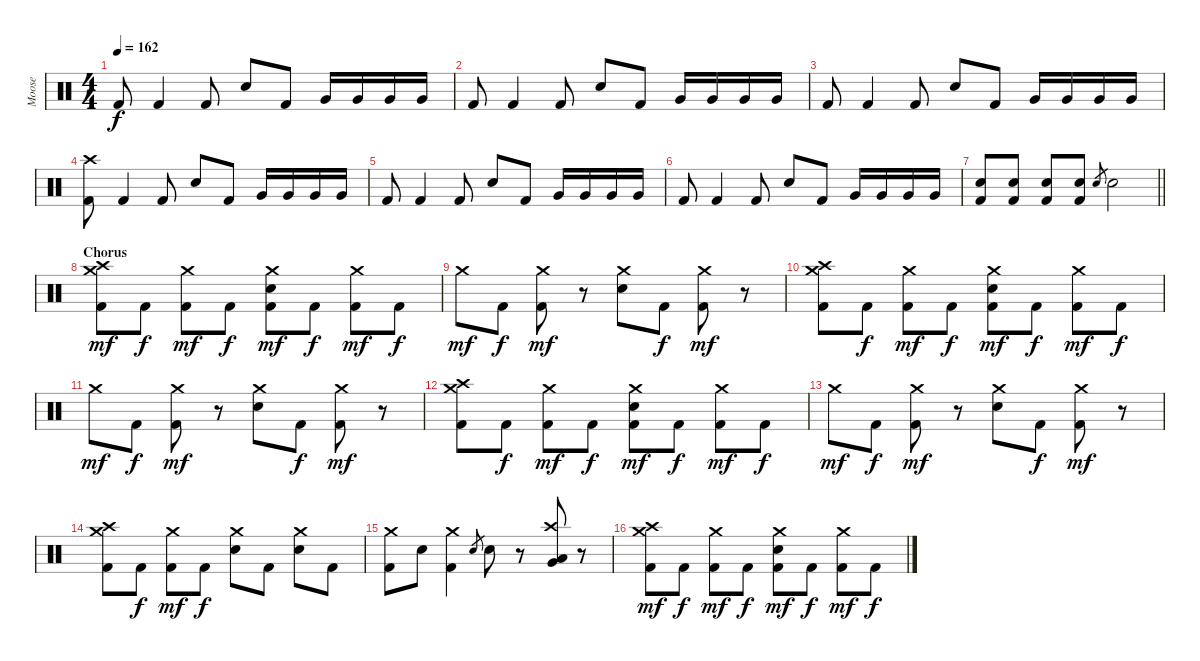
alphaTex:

\track ("Moose" "Moose") {instrument percussion}
\staff {score}
\articulation defaults
\ts (4 4)
\tempo 162
\clef neutral
\ks c "Kick (hit) 2".8{dy f} "Kick (hit) 2".4 "Kick (hit) 2".8 "Snare (hit) 2".8 "Kick (hit) 2".8 "Very Low Tom (hit)".16 "Very Low Tom (hit)".16 "Very Low Tom (hit)".16 "Very Low Tom (hit)".16
|
"Kick (hit) 2".8 "Kick (hit) 2".4 "Kick (hit) 2".8 "Snare (hit) 2".8 "Kick (hit) 2".8 "Very Low Tom (hit)".16 "Very Low Tom (hit)".16 "Very Low Tom (hit)".16 "Very Low Tom (hit)".16 |
"Kick (hit) 2".8 "Kick (hit) 2".4 "Kick (hit) 2".8 "Snare (hit) 2".8 "Kick (hit) 2".8 "Very Low Tom (hit)".16 "Very Low Tom (hit)".16 "Very Low Tom (hit)".16 "Very Low Tom (hit)".16 |
("Crash high (hit)" "Kick (hit) 2").8 "Kick (hit) 2".4 "Kick (hit) 2".8 "Snare (hit) 2".8 "Kick (hit) 2".8 "Very Low Tom (hit)".16 "Very Low Tom (hit)".16 "Very Low Tom (hit)".16 "Very Low Tom (hit)".16 |
"Kick (hit) 2".8 "Kick (hit) 2".4 "Kick (hit) 2".8 "Snare (hit) 2".8 "Kick (hit) 2".8 "Very Low Tom (hit)".16 "Very Low Tom (hit)".16 "Very Low Tom (hit)".16 "Very Low Tom (hit)".16 |
"Kick (hit) 2".8 "Kick (hit) 2".4 "Kick (hit) 2".8 "Snare (hit) 2".8 "Kick (hit) 2".8 "Very Low Tom (hit)".16 "Very Low Tom (hit)".16 "Very Low Tom (hit)".16 "Very Low Tom (hit)".16 |
\barLineRight lightlight
("Snare (hit) 2" "Kick (hit) 2").8 ("Snare (hit) 2" "Kick (hit) 2").8 ("Snare (hit) 2" "Kick (hit) 2").8 ("Snare (hit) 2" "Kick (hit) 2").8 "Snare (hit) 2".8{gr} "Snare (hit) 2".2 |
\section ("" "Chorus")
("Kick (hit) 2" "Crash high (hit)" "Crash medium (hit)").8{dy mf} "Kick (hit) 2".8{dy f} ("Kick (hit) 2" "Crash medium (hit)").8{dy mf} "Kick (hit) 2".8{dy f} ("Kick (hit) 2" "Snare (hit) 2" "Crash medium (hit)").8{dy mf} "Kick (hit) 2".8{dy f} ("Kick (hit) 2" "Crash medium (hit)").8{dy mf} "Kick (hit) 2".8{dy f} |
"Crash medium (hit)".8{dy mf} "Kick (hit) 2".8{dy f} ("Kick (hit) 2" "Crash medium (hit)").8{dy mf} r.8 ("Snare (hit) 2" "Crash medium (hit)").8 "Kick (hit) 2".8{dy f} ("Kick (hit) 2" "Crash medium (hit)").8{dy mf} r.8 |
("Kick (hit) 2" "Crash high (hit)" "Crash medium (hit)").8 "Kick (hit) 2".8{dy f} ("Kick (hit) 2" "Crash medium (hit)").8{dy mf} "Kick (hit) 2".8{dy f} ("Kick (hit) 2" "Snare (hit) 2" "Crash medium (hit)").8{dy mf} "Kick (hit) 2".8{dy f} ("Kick (hit) 2" "Crash medium (hit)").8{dy mf} "Kick (hit) 2".8{dy f} |
"Crash medium (hit)".8{dy mf} "Kick (hit) 2".8{dy f} ("Kick (hit) 2" "Crash medium (hit)").8{dy mf} r.8 ("Snare (hit) 2" "Crash medium (hit)").8 "Kick (hit) 2".8{dy f} ("Kick (hit) 2" "Crash medium (hit)").8{dy mf} r.8 |
("Kick (hit) 2" "Crash high (hit)" "Crash medium (hit)").8 "Kick (hit) 2".8{dy f} ("Kick (hit) 2" "Crash medium (hit)").8{dy mf} "Kick (hit) 2".8{dy f} ("Kick (hit) 2" "Snare (hit) 2" "Crash medium (hit)").8{dy mf} "Kick (hit) 2".8{dy f} ("Kick (hit) 2" "Crash medium (hit)").8{dy mf} "Kick (hit) 2".8{dy f} |
"Crash medium (hit)".8{dy mf} "Kick (hit) 2".8{dy f} ("Kick (hit) 2" "Crash medium (hit)").8{dy mf} r.8 ("Snare (hit) 2" "Crash medium (hit)").8 "Kick (hit) 2".8{dy f} ("Kick (hit) 2" "Crash medium (hit)").8{dy mf} r.8 |
("Kick (hit) 2" "Crash high (hit)" "Crash medium (hit)").8 "Kick (hit) 2".8{dy f} ("Kick (hit) 2" "Crash medium (hit)").8{dy mf} "Kick (hit) 2".8{dy f} ("Crash medium (hit)" "Snare (hit) 2").8 "Kick (hit) 2".8 ("Crash medium (hit)" "Snare (hit) 2").8 "Kick (hit) 2".8 |
("Crash medium (hit)" "Kick (hit) 2").8 "Snare (hit) 2".8 ("Crash medium (hit)" "Kick (hit) 2").4 "Snare (hit) 2".8{gr} "Snare (hit) 2".8 r.8 ("Crash high (hit)" "Very Low Tom (hit)" "Low Floor Tom (hit)").8 r.8 |
("Kick (hit) 2" "Crash high (hit)" "Crash medium (hit)").8{dy mf} "Kick (hit) 2".8{dy f} ("Kick (hit) 2" "Crash medium (hit)").8{dy mf} "Kick (hit) 2".8{dy f} ("Kick (hit) 2" "Snare (hit) 2" "Crash medium (hit)").8{dy mf} "Kick (hit) 2".8{dy f} ("Kick (hit) 2" "Crash medium (hit)").8{dy mf} "Kick (hit) 2".8{dy f}
